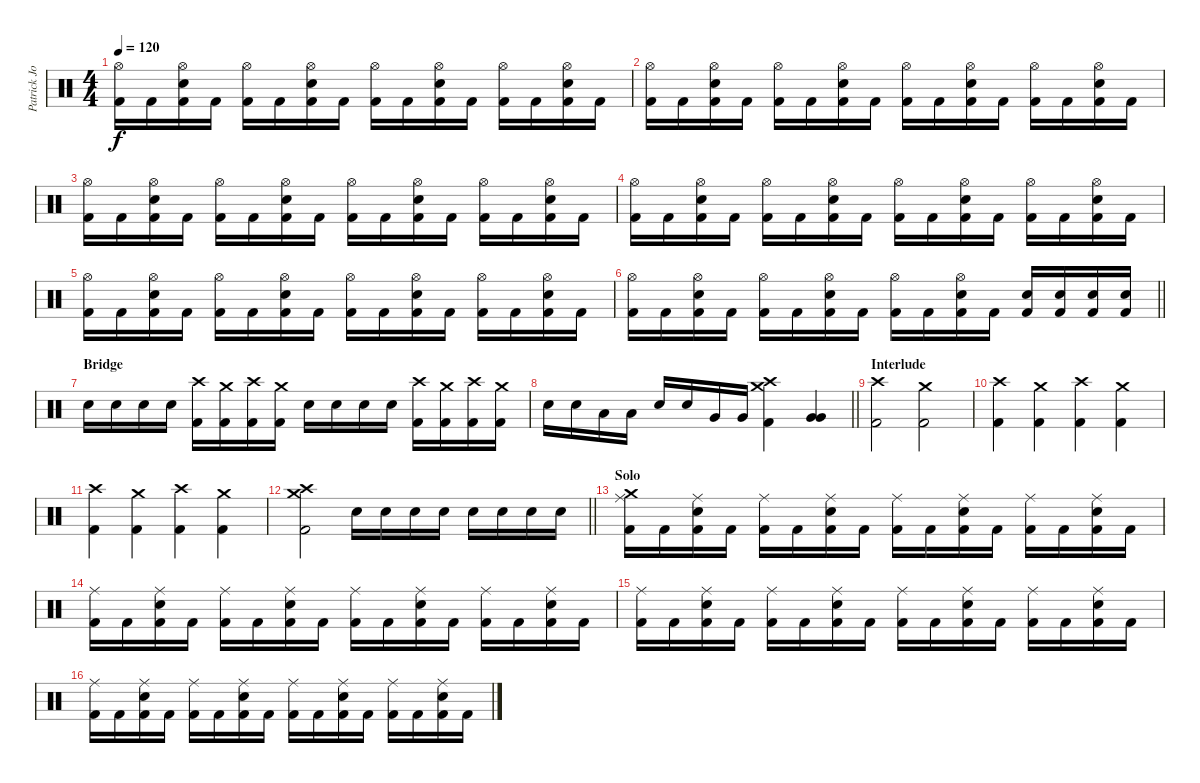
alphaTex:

\track ("Patrick Johansson" "Patrick Jo") {instrument percussion}
\staff {score}
\articulation defaults
\ts (4 4)
\tempo 120
\clef neutral
\ks c
("Hi-Hat (open)" "Kick (hit) 2").16{dy f} "Kick (hit) 2".16 ("Hi-Hat (open)" "Snare (hit) 2" "Kick (hit) 2").16 "Kick (hit) 2".16 ("Hi-Hat (open)" "Kick (hit) 2").16 "Kick (hit) 2".16 ("Hi-Hat (open)" "Snare (hit) 2" "Kick (hit) 2").16 "Kick (hit) 2".16 ("Hi-Hat (open)" "Kick (hit) 2").16 "Kick (hit) 2".16 ("Hi-Hat (open)" "Snare (hit) 2" "Kick (hit) 2").16 "Kick (hit) 2".16 ("Hi-Hat (open)" "Kick (hit) 2").16 "Kick (hit) 2".16 ("Hi-Hat (open)" "Snare (hit) 2" "Kick (hit) 2").16 "Kick (hit) 2".16 |
("Hi-Hat (open)" "Kick (hit) 2").16 "Kick (hit) 2".16 ("Hi-Hat (open)" "Snare (hit) 2" "Kick (hit) 2").16 "Kick (hit) 2".16 ("Hi-Hat (open)" "Kick (hit) 2").16 "Kick (hit) 2".16 ("Hi-Hat (open)" "Snare (hit) 2" "Kick (hit) 2").16 "Kick (hit) 2".16 ("Hi-Hat (open)" "Kick (hit) 2").16 "Kick (hit) 2".16 ("Hi-Hat (open)" "Snare (hit) 2" "Kick (hit) 2").16 "Kick (hit) 2".16 ("Hi-Hat (open)" "Kick (hit) 2").16 "Kick (hit) 2".16 ("Hi-Hat (open)" "Snare (hit) 2" "Kick (hit) 2").16 "Kick (hit) 2".16 |
("Hi-Hat (open)" "Kick (hit) 2").16 "Kick (hit) 2".16 ("Hi-Hat (open)" "Snare (hit) 2" "Kick (hit) 2").16 "Kick (hit) 2".16 ("Hi-Hat (open)" "Kick (hit) 2").16 "Kick (hit) 2".16 ("Hi-Hat (open)" "Snare (hit) 2" "Kick (hit) 2").16 "Kick (hit) 2".16 ("Hi-Hat (open)" "Kick (hit) 2").16 "Kick (hit) 2".16 ("Hi-Hat (open)" "Snare (hit) 2" "Kick (hit) 2").16 "Kick (hit) 2".16 ("Hi-Hat (open)" "Kick (hit) 2").16 "Kick (hit) 2".16 ("Hi-Hat (open)" "Snare (hit) 2" "Kick (hit) 2").16 "Kick (hit) 2".16 |
("Hi-Hat (open)" "Kick (hit) 2").16 "Kick (hit) 2".16 ("Hi-Hat (open)" "Snare (hit) 2" "Kick (hit) 2").16 "Kick (hit) 2".16 ("Hi-Hat (open)" "Kick (hit) 2").16 "Kick (hit) 2".16 ("Hi-Hat (open)" "Snare (hit) 2" "Kick (hit) 2").16 "Kick (hit) 2".16 ("Hi-Hat (open)" "Kick (hit) 2").16 "Kick (hit) 2".16 ("Hi-Hat (open)" "Snare (hit) 2" "Kick (hit) 2").16 "Kick (hit) 2".16 ("Hi-Hat (open)" "Kick (hit) 2").16 "Kick (hit) 2".16 ("Hi-Hat (open)" "Snare (hit) 2" "Kick (hit) 2").16 "Kick (hit) 2".16 |
("Hi-Hat (open)" "Kick (hit) 2").16 "Kick (hit) 2".16 ("Hi-Hat (open)" "Snare (hit) 2" "Kick (hit) 2").16 "Kick (hit) 2".16 ("Hi-Hat (open)" "Kick (hit) 2").16 "Kick (hit) 2".16 ("Hi-Hat (open)" "Snare (hit) 2" "Kick (hit) 2").16 "Kick (hit) 2".16 ("Hi-Hat (open)" "Kick (hit) 2").16 "Kick (hit) 2".16 ("Hi-Hat (open)" "Snare (hit) 2" "Kick (hit) 2").16 "Kick (hit) 2".16 ("Hi-Hat (open)" "Kick (hit) 2").16 "Kick (hit) 2".16 ("Hi-Hat (open)" "Snare (hit) 2" "Kick (hit) 2").16 "Kick (hit) 2".16 |
\barLineRight lightlight
("Hi-Hat (open)" "Kick (hit) 2").16 "Kick (hit) 2".16 ("Hi-Hat (open)" "Snare (hit) 2" "Kick (hit) 2").16 "Kick (hit) 2".16 ("Hi-Hat (open)" "Kick (hit) 2").16 "Kick (hit) 2".16 ("Hi-Hat (open)" "Snare (hit) 2" "Kick (hit) 2").16 "Kick (hit) 2".16 ("Hi-Hat (open)" "Kick (hit) 2").16 "Kick (hit) 2".16 ("Hi-Hat (open)" "Snare (hit) 2" "Kick (hit) 2").16 "Kick (hit) 2".16 ("Snare (hit) 2" "Kick (hit) 2").16 ("Snare (hit) 2" "Kick (hit) 2").16 ("Snare (hit) 2" "Kick (hit) 2").16 ("Snare (hit) 2" "Kick (hit) 2").16 |
\section ("" "Bridge")
"Snare (hit) 2".16 "Snare (hit) 2".16 "Snare (hit) 2".16 "Snare (hit) 2".16 ("Crash high (hit)" "Kick (hit) 2").16 ("Crash medium (hit)" "Kick (hit) 2").16 ("Crash high (hit)" "Kick (hit) 2").16 ("Crash medium (hit)" "Kick (hit) 2").16 "Snare (hit) 2".16 "Snare (hit) 2".16 "Snare (hit) 2".16 "Snare (hit) 2".16 ("Crash high (hit)" "Kick (hit) 2").16 ("Crash medium (hit)" "Kick (hit) 2").16 ("Crash high (hit)" "Kick (hit) 2").16 ("Crash medium (hit)" "Kick (hit) 2").16 |
\barLineRight lightlight "Snare (hit) 2".16 "Snare (hit) 2".16 "Low Tom (hit)".16 "Low Tom (hit)".16 "Snare (hit) 2".16 "Snare (hit) 2".16 "Very Low Tom (hit)".16 "Very Low Tom (hit)".16
("Crash medium (hit)" "Crash high (hit)" "Kick (hit) 2").4 ("Very Low Tom (hit)" "Very Low Tom (hit)").4 |
\section ("" "Interlude")
("Crash high (hit)" "Kick (hit) 2").2 ("Crash medium (hit)" "Kick (hit) 2").2 |
("Crash high (hit)" "Kick (hit) 2").4 ("Crash medium (hit)" "Kick (hit) 2").4 ("Crash high (hit)" "Kick (hit) 2").4 ("Crash medium (hit)" "Kick (hit) 2").4 |
("Crash high (hit)" "Kick (hit) 2").4 ("Crash medium (hit)" "Kick (hit) 2").4 ("Crash high (hit)" "Kick (hit) 2").4 ("Crash medium (hit)" "Kick (hit) 2").4 |
\barLineRight lightlight
("Crash medium (hit)" "Crash high (hit)" "Kick (hit) 2").2 "Snare (hit) 2".16 "Snare (hit) 2".16 "Snare (hit) 2".16 "Snare (hit) 2".16 "Snare (hit) 2".16 "Snare (hit) 2".16 "Snare (hit) 2".16 "Snare (hit) 2".16 |
\section ("" "Solo")
("Crash medium (hit)" "Ride (middle)" "Kick (hit) 2").16 "Kick (hit) 2".16 ("Ride (middle)" "Snare (hit) 2" "Kick (hit) 2").16 "Kick (hit) 2".16 ("Ride (middle)" "Kick (hit) 2").16 "Kick (hit) 2".16 ("Ride (middle)" "Snare (hit) 2" "Kick (hit) 2").16 "Kick (hit) 2".16 ("Ride (middle)" "Kick (hit) 2").16 "Kick (hit) 2".16 ("Ride (middle)" "Snare (hit) 2" "Kick (hit) 2").16 "Kick (hit) 2".16 ("Ride (middle)" "Kick (hit) 2").16 "Kick (hit) 2".16 ("Ride (middle)" "Snare (hit) 2" "Kick (hit) 2").16 "Kick (hit) 2".16 |
("Ride (middle)" "Kick (hit) 2").16 "Kick (hit) 2".16 ("Ride (middle)" "Snare (hit) 2" "Kick (hit) 2").16 "Kick (hit) 2".16 ("Ride (middle)" "Kick (hit) 2").16 "Kick (hit) 2".16 ("Ride (middle)" "Snare (hit) 2" "Kick (hit) 2").16 "Kick (hit) 2".16 ("Ride (middle)" "Kick (hit) 2").16 "Kick (hit) 2".16 ("Ride (middle)" "Snare (hit) 2" "Kick (hit) 2").16 "Kick (hit) 2".16 ("Ride (middle)" "Kick (hit) 2").16 "Kick (hit) 2".16 ("Ride (middle)" "Snare (hit) 2" "Kick (hit) 2").16 "Kick (hit) 2".16 |
("Ride (middle)" "Kick (hit) 2").16 "Kick (hit) 2".16 ("Ride (middle)" "Snare (hit) 2" "Kick (hit) 2").16 "Kick (hit) 2".16 ("Ride (middle)" "Kick (hit) 2").16 "Kick (hit) 2".16 ("Ride (middle)" "Snare (hit) 2" "Kick (hit) 2").16 "Kick (hit) 2".16 ("Ride (middle)" "Kick (hit) 2").16 "Kick (hit) 2".16 ("Ride (middle)" "Snare (hit) 2" "Kick (hit) 2").16 "Kick (hit) 2".16 ("Ride (middle)" "Kick (hit) 2").16 "Kick (hit) 2".16 ("Ride (middle)" "Snare (hit) 2" "Kick (hit) 2").16 "Kick (hit) 2".16 |
("Ride (middle)" "Kick (hit) 2").16 "Kick (hit) 2".16 ("Ride (middle)" "Snare (hit) 2" "Kick (hit) 2").16 "Kick (hit) 2".16 ("Ride (middle)" "Kick (hit) 2").16 "Kick (hit) 2".16 ("Ride (middle)" "Snare (hit) 2" "Kick (hit) 2").16 "Kick (hit) 2".16 ("Ride (middle)" "Kick (hit) 2").16 "Kick (hit) 2".16 ("Ride (middle)" "Snare (hit) 2" "Kick (hit) 2").16 "Kick (hit) 2".16 ("Ride (middle)" "Kick (hit) 2").16 "Kick (hit) 2".16 ("Ride (middle)" "Snare (hit) 2" "Kick (hit) 2").16 "Kick (hit) 2".16
